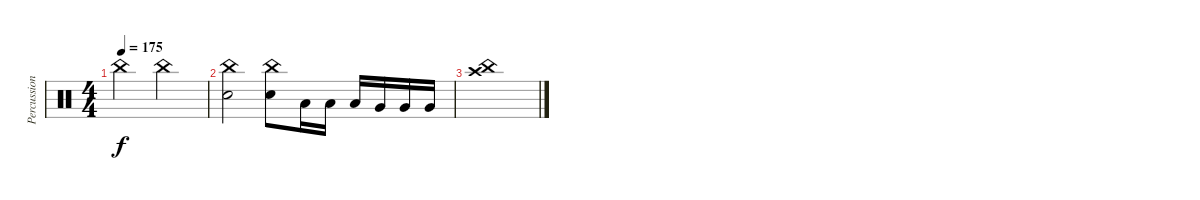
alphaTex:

\track ("Percussion" "Percussion") {instrument percussion}
\staff {score}
\articulation defaults
\ts (4 4)
\tempo 175
\clef neutral
\ks c "China (hit)".2{dy f} "China (hit)".2
|
("China (hit)" "Electric Snare (hit)").2 ("China (hit)" "Electric Snare (hit)").8 "Low Floor Tom (hit)".16 "Low Floor Tom (hit)".16 "Low Floor Tom (hit)".16 "Very Low Tom (hit)".16 "Very Low Tom (hit)".16 "Very Low Tom (hit)".16 |
("Crash high (hit)" "China (hit)").1
